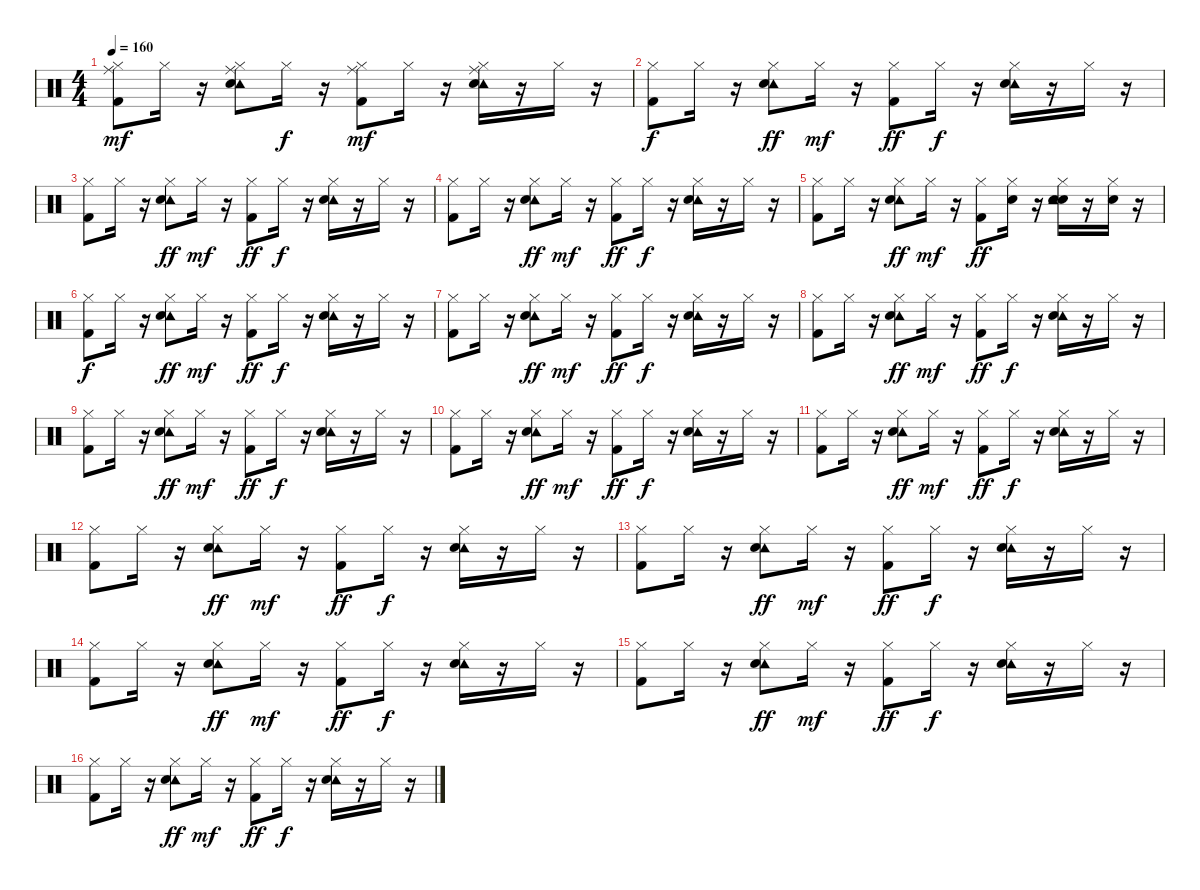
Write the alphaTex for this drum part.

\track "" {instrument percussion}
\staff {score}
\articulation defaults
\ts (4 4)
\tempo 160
\clef neutral
\ks c
("Ride (middle)" "Hi-Hat (closed)" "Kick (hit) 2").8{dy mf} "Hi-Hat (closed)".16 r.16 ("Tambourine (hit)" "Ride (middle)" "Hi-Hat (closed)" "Snare (hit) 2").8 "Hi-Hat (closed)".16{dy f} r.16 ("Ride (middle)" "Hi-Hat (closed)" "Kick (hit) 2").8{dy mf} "Hi-Hat (closed)".16 r.16 ("Tambourine (hit)" "Ride (middle)" "Hi-Hat (closed)" "Snare (hit) 2").16 r.16 "Hi-Hat (closed)".16 r.16 |
("Hi-Hat (closed)" "Kick (hit) 2").8{dy f} "Hi-Hat (closed)".16 r.16 ("Tambourine (hit)" "Hi-Hat (closed)" "Snare (hit) 2").8{dy ff} "Hi-Hat (closed)".16{dy mf} r.16 ("Hi-Hat (closed)" "Kick (hit) 2").8{dy ff} "Hi-Hat (closed)".16{dy f} r.16 ("Tambourine (hit)" "Hi-Hat (closed)" "Snare (hit) 2").16 r.16 "Hi-Hat (closed)".16 r.16 |
("Hi-Hat (closed)" "Kick (hit) 2").8 "Hi-Hat (closed)".16 r.16 ("Tambourine (hit)" "Hi-Hat (closed)" "Snare (hit) 2").8{dy ff} "Hi-Hat (closed)".16{dy mf} r.16 ("Hi-Hat (closed)" "Kick (hit) 2").8{dy ff} "Hi-Hat (closed)".16{dy f} r.16 ("Tambourine (hit)" "Hi-Hat (closed)" "Snare (hit) 2").16 r.16 "Hi-Hat (closed)".16 r.16 |
("Hi-Hat (closed)" "Kick (hit) 2").8 "Hi-Hat (closed)".16 r.16 ("Tambourine (hit)" "Hi-Hat (closed)" "Snare (hit) 2").8{dy ff} "Hi-Hat (closed)".16{dy mf} r.16 ("Hi-Hat (closed)" "Kick (hit) 2").8{dy ff} "Hi-Hat (closed)".16{dy f} r.16 ("Tambourine (hit)" "Hi-Hat (closed)" "Snare (hit) 2").16 r.16 "Hi-Hat (closed)".16 r.16 |
("Hi-Hat (closed)" "Kick (hit) 2").8 "Hi-Hat (closed)".16 r.16 ("Tambourine (hit)" "Hi-Hat (closed)" "Snare (hit) 2").8{dy ff} "Hi-Hat (closed)".16{dy mf} r.16 ("Hi-Hat (closed)" "Kick (hit) 2").8{dy ff} ("Electric Snare (hit)" "Hi-Hat (closed)").16 r.16 ("Electric Snare (hit)" "Tambourine (hit)" "Hi-Hat (closed)" "Snare (hit) 2").16 r.16 ("Electric Snare (hit)" "Hi-Hat (closed)").16 r.16 |
("Hi-Hat (closed)" "Kick (hit) 2").8{dy f} "Hi-Hat (closed)".16 r.16 ("Tambourine (hit)" "Hi-Hat (closed)" "Snare (hit) 2").8{dy ff} "Hi-Hat (closed)".16{dy mf} r.16 ("Hi-Hat (closed)" "Kick (hit) 2").8{dy ff} "Hi-Hat (closed)".16{dy f} r.16 ("Tambourine (hit)" "Hi-Hat (closed)" "Snare (hit) 2").16 r.16 "Hi-Hat (closed)".16 r.16 |
("Hi-Hat (closed)" "Kick (hit) 2").8 "Hi-Hat (closed)".16 r.16 ("Tambourine (hit)" "Hi-Hat (closed)" "Snare (hit) 2").8{dy ff} "Hi-Hat (closed)".16{dy mf} r.16 ("Hi-Hat (closed)" "Kick (hit) 2").8{dy ff} "Hi-Hat (closed)".16{dy f} r.16 ("Tambourine (hit)" "Hi-Hat (closed)" "Snare (hit) 2").16 r.16 "Hi-Hat (closed)".16 r.16 |
("Hi-Hat (closed)" "Kick (hit) 2").8 "Hi-Hat (closed)".16 r.16 ("Tambourine (hit)" "Hi-Hat (closed)" "Snare (hit) 2").8{dy ff} "Hi-Hat (closed)".16{dy mf} r.16 ("Hi-Hat (closed)" "Kick (hit) 2").8{dy ff} "Hi-Hat (closed)".16{dy f} r.16 ("Tambourine (hit)" "Hi-Hat (closed)" "Snare (hit) 2").16 r.16 "Hi-Hat (closed)".16 r.16 |
("Hi-Hat (closed)" "Kick (hit) 2").8 "Hi-Hat (closed)".16 r.16 ("Tambourine (hit)" "Hi-Hat (closed)" "Snare (hit) 2").8{dy ff} "Hi-Hat (closed)".16{dy mf} r.16 ("Hi-Hat (closed)" "Kick (hit) 2").8{dy ff} "Hi-Hat (closed)".16{dy f} r.16 ("Tambourine (hit)" "Hi-Hat (closed)" "Snare (hit) 2").16 r.16 "Hi-Hat (closed)".16 r.16 |
("Hi-Hat (closed)" "Kick (hit) 2").8 "Hi-Hat (closed)".16 r.16 ("Tambourine (hit)" "Hi-Hat (closed)" "Snare (hit) 2").8{dy ff} "Hi-Hat (closed)".16{dy mf} r.16 ("Hi-Hat (closed)" "Kick (hit) 2").8{dy ff} "Hi-Hat (closed)".16{dy f} r.16 ("Tambourine (hit)" "Hi-Hat (closed)" "Snare (hit) 2").16 r.16 "Hi-Hat (closed)".16 r.16 |
("Hi-Hat (closed)" "Kick (hit) 2").8 "Hi-Hat (closed)".16 r.16 ("Tambourine (hit)" "Hi-Hat (closed)" "Snare (hit) 2").8{dy ff} "Hi-Hat (closed)".16{dy mf} r.16 ("Hi-Hat (closed)" "Kick (hit) 2").8{dy ff} "Hi-Hat (closed)".16{dy f} r.16 ("Tambourine (hit)" "Hi-Hat (closed)" "Snare (hit) 2").16 r.16 "Hi-Hat (closed)".16 r.16 |
("Hi-Hat (closed)" "Kick (hit) 2").8 "Hi-Hat (closed)".16 r.16 ("Tambourine (hit)" "Hi-Hat (closed)" "Snare (hit) 2").8{dy ff} "Hi-Hat (closed)".16{dy mf} r.16 ("Hi-Hat (closed)" "Kick (hit) 2").8{dy ff} "Hi-Hat (closed)".16{dy f} r.16 ("Tambourine (hit)" "Hi-Hat (closed)" "Snare (hit) 2").16 r.16 "Hi-Hat (closed)".16 r.16 |
("Hi-Hat (closed)" "Kick (hit) 2").8 "Hi-Hat (closed)".16 r.16 ("Tambourine (hit)" "Hi-Hat (closed)" "Snare (hit) 2").8{dy ff} "Hi-Hat (closed)".16{dy mf} r.16 ("Hi-Hat (closed)" "Kick (hit) 2").8{dy ff} "Hi-Hat (closed)".16{dy f} r.16 ("Tambourine (hit)" "Hi-Hat (closed)" "Snare (hit) 2").16 r.16 "Hi-Hat (closed)".16 r.16 |
("Hi-Hat (closed)" "Kick (hit) 2").8 "Hi-Hat (closed)".16 r.16 ("Tambourine (hit)" "Hi-Hat (closed)" "Snare (hit) 2").8{dy ff} "Hi-Hat (closed)".16{dy mf} r.16 ("Hi-Hat (closed)" "Kick (hit) 2").8{dy ff} "Hi-Hat (closed)".16{dy f} r.16 ("Tambourine (hit)" "Hi-Hat (closed)" "Snare (hit) 2").16 r.16 "Hi-Hat (closed)".16 r.16 |
("Hi-Hat (closed)" "Kick (hit) 2").8 "Hi-Hat (closed)".16 r.16 ("Tambourine (hit)" "Hi-Hat (closed)" "Snare (hit) 2").8{dy ff} "Hi-Hat (closed)".16{dy mf} r.16 ("Hi-Hat (closed)" "Kick (hit) 2").8{dy ff} "Hi-Hat (closed)".16{dy f} r.16 ("Tambourine (hit)" "Hi-Hat (closed)" "Snare (hit) 2").16 r.16 "Hi-Hat (closed)".16 r.16 |
("Hi-Hat (closed)" "Kick (hit) 2").8 "Hi-Hat (closed)".16 r.16 ("Tambourine (hit)" "Hi-Hat (closed)" "Snare (hit) 2").8{dy ff} "Hi-Hat (closed)".16{dy mf} r.16 ("Hi-Hat (closed)" "Kick (hit) 2").8{dy ff} "Hi-Hat (closed)".16{dy f} r.16 ("Tambourine (hit)" "Hi-Hat (closed)" "Snare (hit) 2").16 r.16 "Hi-Hat (closed)".16 r.16
